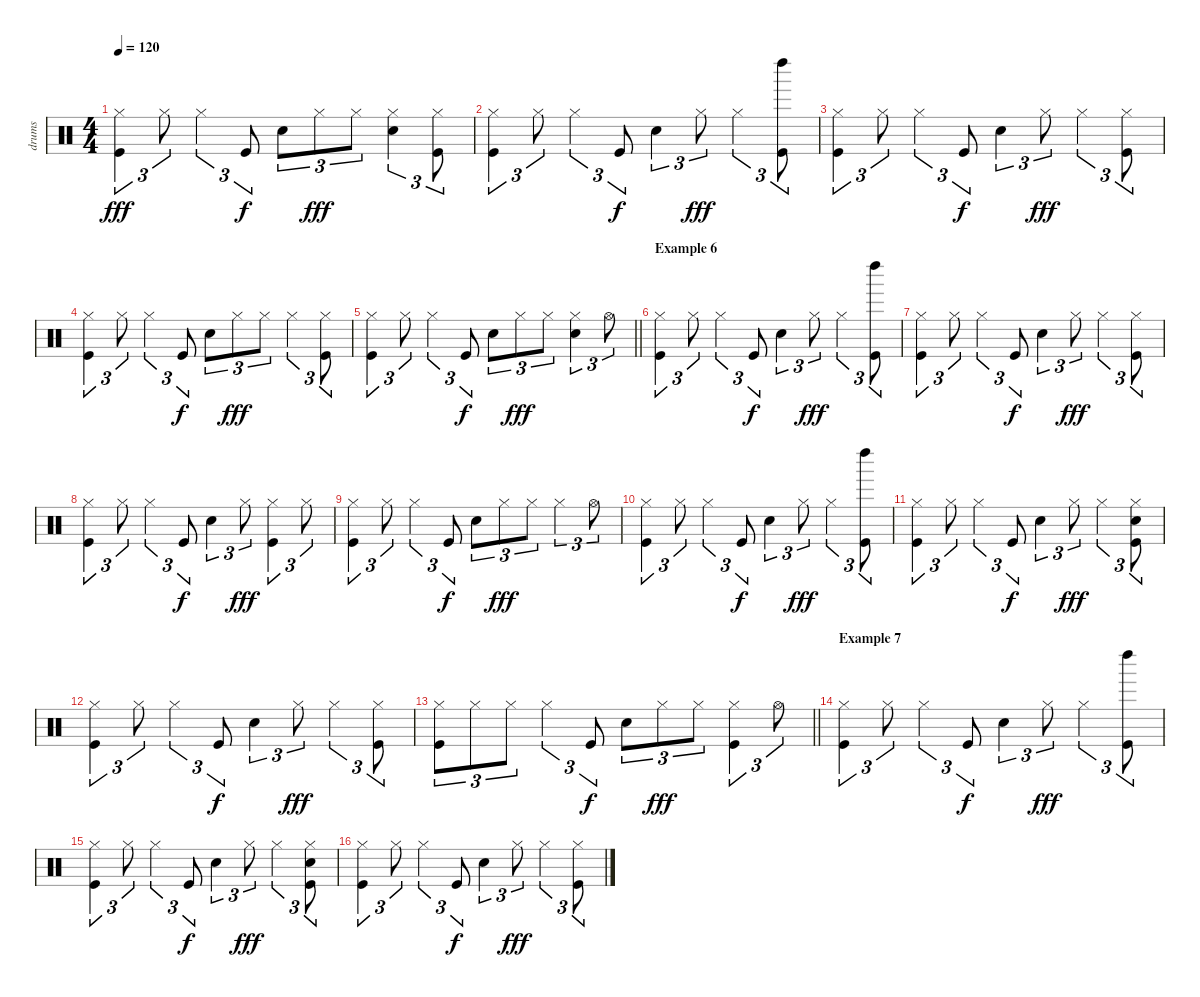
\track ("drums" "drums") {instrument percussion}
\staff {score}
\articulation defaults
\ts (4 4)
\tempo 120
\clef neutral
\ks c
("Hi-Hat (closed)" "Kick (hit)").4{tu (3 2) dy fff} "Hi-Hat (closed)".8{tu (3 2)} "Hi-Hat (closed)".4{tu (3 2)} "Kick (hit)".8{tu (3 2) dy f} "Snare (hit) 2".8{tu (3 2)} "Hi-Hat (closed)".8{tu (3 2) dy fff} "Hi-Hat (closed)".8{tu (3 2)} ("Snare (hit) 2" "Hi-Hat (closed)").4{tu (3 2)} ("Hi-Hat (closed)" "Kick (hit)").8{tu (3 2)} |
("Hi-Hat (closed)" "Kick (hit)").4{tu (3 2)} "Hi-Hat (closed)".8{tu (3 2)} "Hi-Hat (closed)".4{tu (3 2)} "Kick (hit)".8{tu (3 2) dy f} "Snare (hit) 2".4{tu (3 2)} "Hi-Hat (closed)".8{tu (3 2) dy fff} "Hi-Hat (closed)".4{tu (3 2)} ("Left Maraca (hit)" "Kick (hit)").8{tu (3 2)} |
("Hi-Hat (closed)" "Kick (hit)").4{tu (3 2)} "Hi-Hat (closed)".8{tu (3 2)} "Hi-Hat (closed)".4{tu (3 2)} "Kick (hit)".8{tu (3 2) dy f} "Snare (hit) 2".4{tu (3 2)} "Hi-Hat (closed)".8{tu (3 2) dy fff} "Hi-Hat (closed)".4{tu (3 2)} ("Hi-Hat (closed)" "Kick (hit)").8{tu (3 2)} |
("Hi-Hat (closed)" "Kick (hit)").4{tu (3 2)} "Hi-Hat (closed)".8{tu (3 2)} "Hi-Hat (closed)".4{tu (3 2)} "Kick (hit)".8{tu (3 2) dy f} "Snare (hit) 2".8{tu (3 2)} "Hi-Hat (closed)".8{tu (3 2) dy fff} "Hi-Hat (closed)".8{tu (3 2)} "Hi-Hat (closed)".4{tu (3 2)} ("Hi-Hat (closed)" "Kick (hit)").8{tu (3 2)} |
\barLineRight lightlight
("Hi-Hat (closed)" "Kick (hit)").4{tu (3 2)} "Hi-Hat (closed)".8{tu (3 2)} "Hi-Hat (closed)".4{tu (3 2)} "Kick (hit)".8{tu (3 2) dy f} "Snare (hit) 2".8{tu (3 2)} "Hi-Hat (closed)".8{tu (3 2) dy fff} "Hi-Hat (closed)".8{tu (3 2)} ("Snare (hit) 2" "Hi-Hat (closed)").4{tu (3 2)} "Hi-Hat (open)".8{tu (3 2)} |
\section ("" "Example 6")
("Hi-Hat (closed)" "Kick (hit)").4{tu (3 2)} "Hi-Hat (closed)".8{tu (3 2)} "Hi-Hat (closed)".4{tu (3 2)} "Kick (hit)".8{tu (3 2) dy f} "Snare (hit) 2".4{tu (3 2)} "Hi-Hat (closed)".8{tu (3 2) dy fff} "Hi-Hat (closed)".4{tu (3 2)} ("Left Maraca (hit)" "Kick (hit)").8{tu (3 2)} |
("Hi-Hat (closed)" "Kick (hit)").4{tu (3 2)} "Hi-Hat (closed)".8{tu (3 2)} "Hi-Hat (closed)".4{tu (3 2)} "Kick (hit)".8{tu (3 2) dy f} "Snare (hit) 2".4{tu (3 2)} "Hi-Hat (closed)".8{tu (3 2) dy fff} "Hi-Hat (closed)".4{tu (3 2)} ("Hi-Hat (closed)" "Kick (hit)").8{tu (3 2)} |
("Hi-Hat (closed)" "Kick (hit)").4{tu (3 2)} "Hi-Hat (closed)".8{tu (3 2)} "Hi-Hat (closed)".4{tu (3 2)} "Kick (hit)".8{tu (3 2) dy f} "Snare (hit) 2".4{tu (3 2)} "Hi-Hat (closed)".8{tu (3 2) dy fff} ("Hi-Hat (closed)" "Kick (hit)").4{tu (3 2)} "Hi-Hat (closed)".8{tu (3 2)} |
("Hi-Hat (closed)" "Kick (hit)").4{tu (3 2)} "Hi-Hat (closed)".8{tu (3 2)} "Hi-Hat (closed)".4{tu (3 2)} "Kick (hit)".8{tu (3 2) dy f} "Snare (hit) 2".8{tu (3 2)} "Hi-Hat (closed)".8{tu (3 2) dy fff} "Hi-Hat (closed)".8{tu (3 2)} "Hi-Hat (closed)".4{tu (3 2)} "Hi-Hat (open)".8{tu (3 2)} |
("Hi-Hat (closed)" "Kick (hit)").4{tu (3 2)} "Hi-Hat (closed)".8{tu (3 2)} "Hi-Hat (closed)".4{tu (3 2)} "Kick (hit)".8{tu (3 2) dy f} "Snare (hit) 2".4{tu (3 2)} "Hi-Hat (closed)".8{tu (3 2) dy fff} "Hi-Hat (closed)".4{tu (3 2)} ("Left Maraca (hit)" "Kick (hit)").8{tu (3 2)} |
("Hi-Hat (closed)" "Kick (hit)").4{tu (3 2)} "Hi-Hat (closed)".8{tu (3 2)} "Hi-Hat (closed)".4{tu (3 2)} "Kick (hit)".8{tu (3 2) dy f} "Snare (hit) 2".4{tu (3 2)} "Hi-Hat (closed)".8{tu (3 2) dy fff} "Hi-Hat (closed)".4{tu (3 2)} ("Snare (hit) 2" "Hi-Hat (closed)" "Kick (hit)").8{tu (3 2)} |
("Hi-Hat (closed)" "Kick (hit)").4{tu (3 2)} "Hi-Hat (closed)".8{tu (3 2)} "Hi-Hat (closed)".4{tu (3 2)} "Kick (hit)".8{tu (3 2) dy f} "Snare (hit) 2".4{tu (3 2)} "Hi-Hat (closed)".8{tu (3 2) dy fff} "Hi-Hat (closed)".4{tu (3 2)} ("Hi-Hat (closed)" "Kick (hit)").8{tu (3 2)} |
\barLineRight lightlight
("Hi-Hat (closed)" "Kick (hit)").8{tu (3 2)} "Hi-Hat (closed)".8{tu (3 2)} "Hi-Hat (closed)".8{tu (3 2)} "Hi-Hat (closed)".4{tu (3 2)} "Kick (hit)".8{tu (3 2) dy f} "Snare (hit) 2".8{tu (3 2)} "Hi-Hat (closed)".8{tu (3 2) dy fff} "Hi-Hat (closed)".8{tu (3 2)} ("Hi-Hat (closed)" "Kick (hit)").4{tu (3 2)} "Hi-Hat (open)".8{tu (3 2)} |
\section ("" "Example 7")
("Hi-Hat (closed)" "Kick (hit)").4{tu (3 2)} "Hi-Hat (closed)".8{tu (3 2)} "Hi-Hat (closed)".4{tu (3 2)} "Kick (hit)".8{tu (3 2) dy f} "Snare (hit) 2".4{tu (3 2)} "Hi-Hat (closed)".8{tu (3 2) dy fff} "Hi-Hat (closed)".4{tu (3 2)} ("Left Maraca (hit)" "Kick (hit)").8{tu (3 2)} |
("Hi-Hat (closed)" "Kick (hit)").4{tu (3 2)} "Hi-Hat (closed)".8{tu (3 2)} "Hi-Hat (closed)".4{tu (3 2)} "Kick (hit)".8{tu (3 2) dy f} "Snare (hit) 2".4{tu (3 2)} "Hi-Hat (closed)".8{tu (3 2) dy fff} "Hi-Hat (closed)".4{tu (3 2)} ("Snare (hit) 2" "Hi-Hat (closed)" "Kick (hit)").8{tu (3 2)} |
("Hi-Hat (closed)" "Kick (hit)").4{tu (3 2)} "Hi-Hat (closed)".8{tu (3 2)} "Hi-Hat (closed)".4{tu (3 2)} "Kick (hit)".8{tu (3 2) dy f} "Snare (hit) 2".4{tu (3 2)} "Hi-Hat (closed)".8{tu (3 2) dy fff} "Hi-Hat (closed)".4{tu (3 2)} ("Hi-Hat (closed)" "Kick (hit)").8{tu (3 2)}
